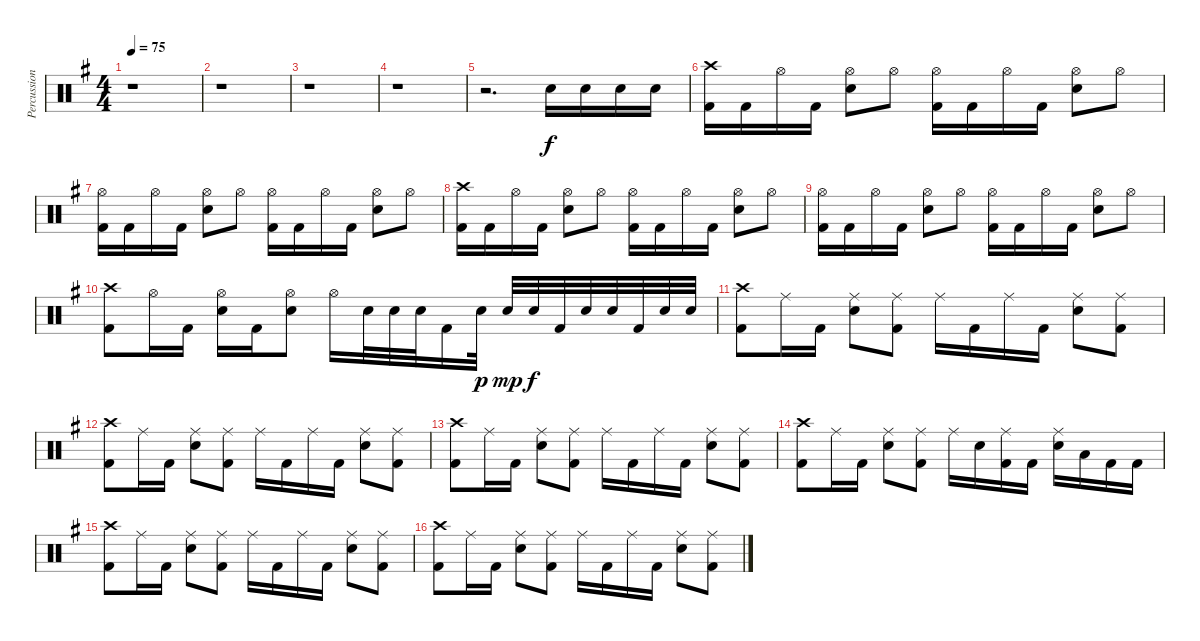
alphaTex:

\track ("Percussion" "Percussion") {instrument percussion}
\staff {score}
\articulation defaults
\ts (4 4)
\tempo 75
\clef neutral
\ks eminor
r.1{dy f} |
r.1 |
r.1 |
r.1 |
r.2{d} "Electric Snare (hit)".16 "Electric Snare (hit)".16 "Electric Snare (hit)".16 "Electric Snare (hit)".16 |
("Crash high (hit)" "Kick (hit) 2").16 "Kick (hit) 2".16 "Hi-Hat (open)".16 "Kick (hit) 2".16 ("Hi-Hat (open)" "Electric Snare (hit)").8 "Hi-Hat (open)".8 ("Hi-Hat (open)" "Kick (hit) 2").16 "Kick (hit) 2".16 "Hi-Hat (open)".16 "Kick (hit) 2".16 ("Hi-Hat (open)" "Electric Snare (hit)").8 "Hi-Hat (open)".8 |
("Hi-Hat (open)" "Kick (hit) 2").16 "Kick (hit) 2".16 "Hi-Hat (open)".16 "Kick (hit) 2".16 ("Hi-Hat (open)" "Electric Snare (hit)").8 "Hi-Hat (open)".8 ("Hi-Hat (open)" "Kick (hit) 2").16 "Kick (hit) 2".16 "Hi-Hat (open)".16 "Kick (hit) 2".16 ("Hi-Hat (open)" "Electric Snare (hit)").8 "Hi-Hat (open)".8 |
("Crash high (hit)" "Kick (hit) 2").16 "Kick (hit) 2".16 "Hi-Hat (open)".16 "Kick (hit) 2".16 ("Hi-Hat (open)" "Electric Snare (hit)").8 "Hi-Hat (open)".8 ("Hi-Hat (open)" "Kick (hit) 2").16 "Kick (hit) 2".16 "Hi-Hat (open)".16 "Kick (hit) 2".16 ("Hi-Hat (open)" "Electric Snare (hit)").8 "Hi-Hat (open)".8 |
("Hi-Hat (open)" "Kick (hit) 2").16 "Kick (hit) 2".16 "Hi-Hat (open)".16 "Kick (hit) 2".16 ("Hi-Hat (open)" "Electric Snare (hit)").8 "Hi-Hat (open)".8 ("Hi-Hat (open)" "Kick (hit) 2").16 "Kick (hit) 2".16 "Hi-Hat (open)".16 "Kick (hit) 2".16 ("Hi-Hat (open)" "Electric Snare (hit)").8 "Hi-Hat (open)".8 |
("Crash high (hit)" "Kick (hit) 2").8 "Hi-Hat (open)".16 "Kick (hit) 2".16 ("Hi-Hat (open)" "Electric Snare (hit)").16 "Kick (hit) 2".16 ("Hi-Hat (open)" "Electric Snare (hit)").8 "Hi-Hat (open)".16 "Electric Snare (hit)".32 "Electric Snare (hit)".32 "Electric Snare (hit)".32 "Kick (hit) 2".16 "Electric Snare (hit)".32{dy p} "Electric Snare (hit)".32{dy mp} "Electric Snare (hit)".32{dy f} "Kick (hit) 2".32 "Electric Snare (hit)".32 "Electric Snare (hit)".32 "Kick (hit) 2".32 "Electric Snare (hit)".32 "Electric Snare (hit)".32 |
("Crash high (hit)" "Kick (hit) 2").8 "Ride (middle)".16 "Kick (hit) 2".16 ("Ride (middle)" "Electric Snare (hit)").8 ("Ride (middle)" "Kick (hit) 2").8 "Ride (middle)".16 "Kick (hit) 2".16 "Ride (middle)".16 "Kick (hit) 2".16 ("Ride (middle)" "Electric Snare (hit)").8 ("Ride (middle)" "Kick (hit) 2").8 |
("Crash high (hit)" "Kick (hit) 2").8 "Ride (middle)".16 "Kick (hit) 2".16 ("Ride (middle)" "Electric Snare (hit)").8 ("Ride (middle)" "Kick (hit) 2").8 "Ride (middle)".16 "Kick (hit) 2".16 "Ride (middle)".16 "Kick (hit) 2".16 ("Ride (middle)" "Electric Snare (hit)").8 ("Ride (middle)" "Kick (hit) 2").8 |
("Crash high (hit)" "Kick (hit) 2").8 "Ride (middle)".16 "Kick (hit) 2".16 ("Ride (middle)" "Electric Snare (hit)").8 ("Ride (middle)" "Kick (hit) 2").8 "Ride (middle)".16 "Kick (hit) 2".16 "Ride (middle)".16 "Kick (hit) 2".16 ("Ride (middle)" "Electric Snare (hit)").8 ("Ride (middle)" "Kick (hit) 2").8 |
("Crash high (hit)" "Kick (hit) 2").8 "Ride (middle)".16 "Kick (hit) 2".16 ("Ride (middle)" "Electric Snare (hit)").8 ("Ride (middle)" "Kick (hit) 2").8 "Ride (middle)".16 "Electric Snare (hit)".16 ("Ride (middle)" "Kick (hit) 2").16 "Kick (hit) 2".16 ("Ride (middle)" "Electric Snare (hit)").16 "Low Tom (hit)".16 "Kick (hit) 2".16 "Kick (hit) 2".16 |
("Crash high (hit)" "Kick (hit) 2").8 "Ride (middle)".16 "Kick (hit) 2".16 ("Ride (middle)" "Electric Snare (hit)").8 ("Ride (middle)" "Kick (hit) 2").8 "Ride (middle)".16 "Kick (hit) 2".16 "Ride (middle)".16 "Kick (hit) 2".16 ("Ride (middle)" "Electric Snare (hit)").8 ("Ride (middle)" "Kick (hit) 2").8 |
("Crash high (hit)" "Kick (hit) 2").8 "Ride (middle)".16 "Kick (hit) 2".16 ("Ride (middle)" "Electric Snare (hit)").8 ("Ride (middle)" "Kick (hit) 2").8 "Ride (middle)".16 "Kick (hit) 2".16 "Ride (middle)".16 "Kick (hit) 2".16 ("Ride (middle)" "Electric Snare (hit)").8 ("Ride (middle)" "Kick (hit) 2").8
